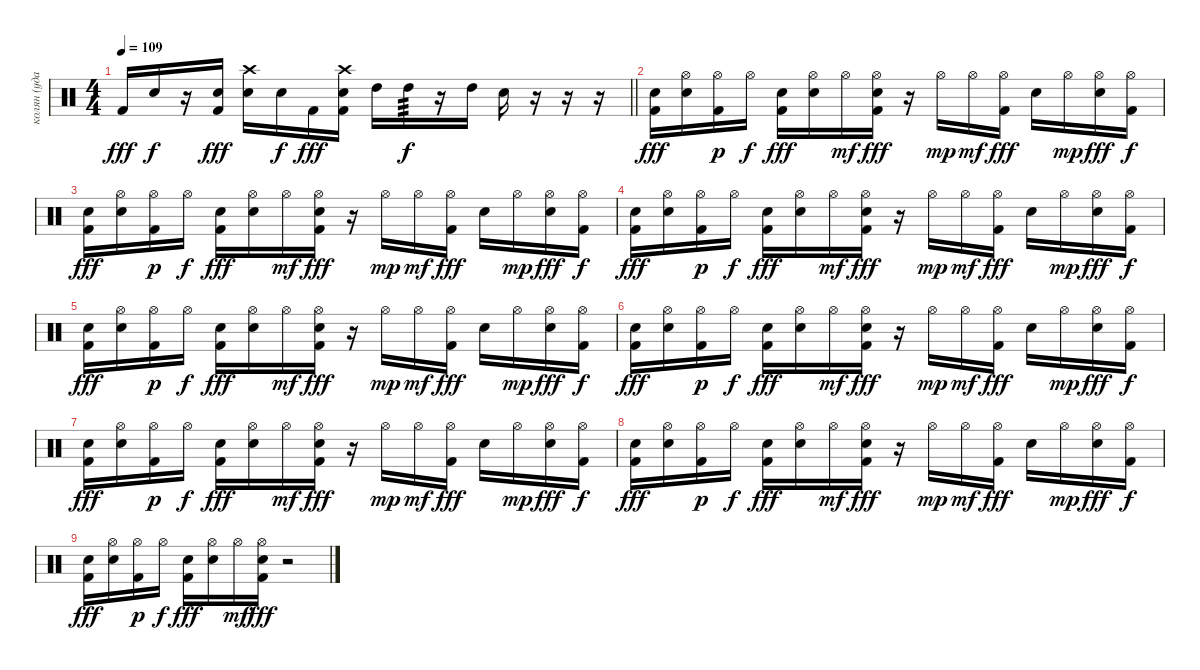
\track ("колян (ударные)" "колян (уда") {instrument percussion}
\staff
\articulation defaults
\ts (4 4)
\tempo 109
\clef neutral
\barLineRight lightlight
\ks c "Kick (hit) 2".16{dy fff} "Snare (hit) 2".16{dy f}
r.16 ("Snare (hit) 2" "Kick (hit) 2").16{dy fff} ("Crash high (hit)" "Snare (hit) 2").16 "Snare (hit) 2".16{dy f} "Kick (hit) 2".16{dy fff} ("Crash high (hit)" "Snare (hit) 2" "Kick (hit) 2").16 "High Tom (hit)".16 "High Tom (hit)".16{tp 3 dy f} r.16 "High Tom (hit)".16 "Snare (hit) 2".16 r.16 r.16 r.16 |
("Snare (hit) 2" "Kick (hit) 2").16{dy fff} ("Hi-Hat (open)" "Snare (hit) 2").16 ("Hi-Hat (open)" "Kick (hit) 2").16{dy p} "Hi-Hat (open)".16{dy f} ("Snare (hit) 2" "Kick (hit) 2").16{dy fff} ("Hi-Hat (open)" "Snare (hit) 2").16 "Hi-Hat (open)".16{dy mf} ("Hi-Hat (open)" "Snare (hit) 2" "Kick (hit) 2").16{dy fff} r.16 "Hi-Hat (open)".16{dy mp} "Hi-Hat (open)".16{dy mf} ("Hi-Hat (open)" "Kick (hit) 2").16{dy fff} "Snare (hit) 2".16 "Hi-Hat (open)".16{dy mp} ("Hi-Hat (open)" "Snare (hit) 2").16{dy fff} ("Hi-Hat (open)" "Kick (hit) 2").16{dy f} |
("Snare (hit) 2" "Kick (hit) 2").16{dy fff} ("Hi-Hat (open)" "Snare (hit) 2").16 ("Hi-Hat (open)" "Kick (hit) 2").16{dy p} "Hi-Hat (open)".16{dy f} ("Snare (hit) 2" "Kick (hit) 2").16{dy fff} ("Hi-Hat (open)" "Snare (hit) 2").16 "Hi-Hat (open)".16{dy mf} ("Hi-Hat (open)" "Snare (hit) 2" "Kick (hit) 2").16{dy fff} r.16 "Hi-Hat (open)".16{dy mp} "Hi-Hat (open)".16{dy mf} ("Hi-Hat (open)" "Kick (hit) 2").16{dy fff} "Snare (hit) 2".16 "Hi-Hat (open)".16{dy mp} ("Hi-Hat (open)" "Snare (hit) 2").16{dy fff} ("Hi-Hat (open)" "Kick (hit) 2").16{dy f} |
("Snare (hit) 2" "Kick (hit) 2").16{dy fff} ("Hi-Hat (open)" "Snare (hit) 2").16 ("Hi-Hat (open)" "Kick (hit) 2").16{dy p} "Hi-Hat (open)".16{dy f} ("Snare (hit) 2" "Kick (hit) 2").16{dy fff} ("Hi-Hat (open)" "Snare (hit) 2").16 "Hi-Hat (open)".16{dy mf} ("Hi-Hat (open)" "Snare (hit) 2" "Kick (hit) 2").16{dy fff} r.16 "Hi-Hat (open)".16{dy mp} "Hi-Hat (open)".16{dy mf} ("Hi-Hat (open)" "Kick (hit) 2").16{dy fff} "Snare (hit) 2".16 "Hi-Hat (open)".16{dy mp} ("Hi-Hat (open)" "Snare (hit) 2").16{dy fff} ("Hi-Hat (open)" "Kick (hit) 2").16{dy f} |
("Snare (hit) 2" "Kick (hit) 2").16{dy fff} ("Hi-Hat (open)" "Snare (hit) 2").16 ("Hi-Hat (open)" "Kick (hit) 2").16{dy p} "Hi-Hat (open)".16{dy f} ("Snare (hit) 2" "Kick (hit) 2").16{dy fff} ("Hi-Hat (open)" "Snare (hit) 2").16 "Hi-Hat (open)".16{dy mf} ("Hi-Hat (open)" "Snare (hit) 2" "Kick (hit) 2").16{dy fff} r.16 "Hi-Hat (open)".16{dy mp} "Hi-Hat (open)".16{dy mf} ("Hi-Hat (open)" "Kick (hit) 2").16{dy fff} "Snare (hit) 2".16 "Hi-Hat (open)".16{dy mp} ("Hi-Hat (open)" "Snare (hit) 2").16{dy fff} ("Hi-Hat (open)" "Kick (hit) 2").16{dy f} |
("Snare (hit) 2" "Kick (hit) 2").16{dy fff} ("Hi-Hat (open)" "Snare (hit) 2").16 ("Hi-Hat (open)" "Kick (hit) 2").16{dy p} "Hi-Hat (open)".16{dy f} ("Snare (hit) 2" "Kick (hit) 2").16{dy fff} ("Hi-Hat (open)" "Snare (hit) 2").16 "Hi-Hat (open)".16{dy mf} ("Hi-Hat (open)" "Snare (hit) 2" "Kick (hit) 2").16{dy fff} r.16 "Hi-Hat (open)".16{dy mp} "Hi-Hat (open)".16{dy mf} ("Hi-Hat (open)" "Kick (hit) 2").16{dy fff} "Snare (hit) 2".16 "Hi-Hat (open)".16{dy mp} ("Hi-Hat (open)" "Snare (hit) 2").16{dy fff} ("Hi-Hat (open)" "Kick (hit) 2").16{dy f} |
("Snare (hit) 2" "Kick (hit) 2").16{dy fff} ("Hi-Hat (open)" "Snare (hit) 2").16 ("Hi-Hat (open)" "Kick (hit) 2").16{dy p} "Hi-Hat (open)".16{dy f} ("Snare (hit) 2" "Kick (hit) 2").16{dy fff} ("Hi-Hat (open)" "Snare (hit) 2").16 "Hi-Hat (open)".16{dy mf} ("Hi-Hat (open)" "Snare (hit) 2" "Kick (hit) 2").16{dy fff} r.16 "Hi-Hat (open)".16{dy mp} "Hi-Hat (open)".16{dy mf} ("Hi-Hat (open)" "Kick (hit) 2").16{dy fff} "Snare (hit) 2".16 "Hi-Hat (open)".16{dy mp} ("Hi-Hat (open)" "Snare (hit) 2").16{dy fff} ("Hi-Hat (open)" "Kick (hit) 2").16{dy f} |
("Snare (hit) 2" "Kick (hit) 2").16{dy fff} ("Hi-Hat (open)" "Snare (hit) 2").16 ("Hi-Hat (open)" "Kick (hit) 2").16{dy p} "Hi-Hat (open)".16{dy f} ("Snare (hit) 2" "Kick (hit) 2").16{dy fff} ("Hi-Hat (open)" "Snare (hit) 2").16 "Hi-Hat (open)".16{dy mf} ("Hi-Hat (open)" "Snare (hit) 2" "Kick (hit) 2").16{dy fff} r.16 "Hi-Hat (open)".16{dy mp} "Hi-Hat (open)".16{dy mf} ("Hi-Hat (open)" "Kick (hit) 2").16{dy fff} "Snare (hit) 2".16 "Hi-Hat (open)".16{dy mp} ("Hi-Hat (open)" "Snare (hit) 2").16{dy fff} ("Hi-Hat (open)" "Kick (hit) 2").16{dy f} |
("Snare (hit) 2" "Kick (hit) 2").16{dy fff} ("Hi-Hat (open)" "Snare (hit) 2").16 ("Hi-Hat (open)" "Kick (hit) 2").16{dy p} "Hi-Hat (open)".16{dy f} ("Snare (hit) 2" "Kick (hit) 2").16{dy fff} ("Hi-Hat (open)" "Snare (hit) 2").16 "Hi-Hat (open)".16{dy mf} ("Hi-Hat (open)" "Snare (hit) 2" "Kick (hit) 2").16{dy fff} r.2
